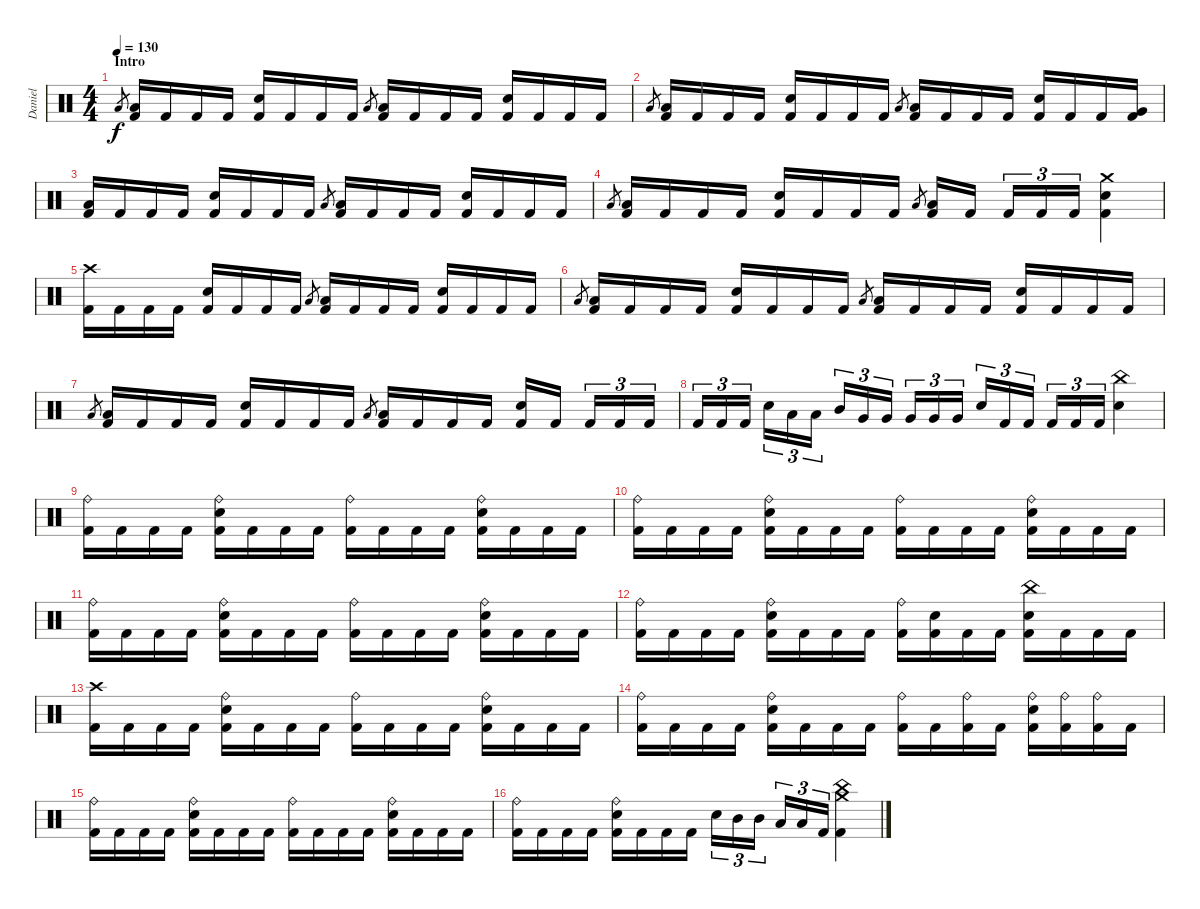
\track ("Daniel" "Daniel") {instrument percussion}
\staff {score}
\articulation defaults
\ts (4 4)
\section ("" "Intro")
\tempo 130
\clef neutral
\ks c "Low Floor Tom (hit)".8{gr dy f}
("Low Floor Tom (hit)" "Kick (hit) 2").16 "Kick (hit) 2".16 "Kick (hit) 2".16 "Kick (hit) 2".16 ("Electric Snare (hit)" "Kick (hit) 2").16 "Kick (hit) 2".16 "Kick (hit) 2".16 "Kick (hit) 2".16 "Low Floor Tom (hit)".8{gr} ("Low Floor Tom (hit)" "Kick (hit) 2").16 "Kick (hit) 2".16 "Kick (hit) 2".16 "Kick (hit) 2".16 ("Electric Snare (hit)" "Kick (hit) 2").16 "Kick (hit) 2".16 "Kick (hit) 2".16 "Kick (hit) 2".16 |
"Low Floor Tom (hit)".8{gr} ("Low Floor Tom (hit)" "Kick (hit) 2").16 "Kick (hit) 2".16 "Kick (hit) 2".16 "Kick (hit) 2".16 ("Electric Snare (hit)" "Kick (hit) 2").16 "Kick (hit) 2".16 "Kick (hit) 2".16 "Kick (hit) 2".16 "Low Floor Tom (hit)".8{gr} ("Low Floor Tom (hit)" "Kick (hit) 2").16 "Kick (hit) 2".16 "Kick (hit) 2".16 "Kick (hit) 2".16 ("Electric Snare (hit)" "Kick (hit) 2").16 "Kick (hit) 2".16 "Kick (hit) 2".16 ("Very Low Tom (hit)" "Kick (hit) 2").16 |
("Low Floor Tom (hit)" "Kick (hit) 2").16 "Kick (hit) 2".16 "Kick (hit) 2".16 "Kick (hit) 2".16 ("Electric Snare (hit)" "Kick (hit) 2").16 "Kick (hit) 2".16 "Kick (hit) 2".16 "Kick (hit) 2".16 "Low Floor Tom (hit)".8{gr} ("Low Floor Tom (hit)" "Kick (hit) 2").16 "Kick (hit) 2".16 "Kick (hit) 2".16 "Kick (hit) 2".16 ("Electric Snare (hit)" "Kick (hit) 2").16 "Kick (hit) 2".16 "Kick (hit) 2".16 "Kick (hit) 2".16 |
"Low Floor Tom (hit)".8{gr} ("Low Floor Tom (hit)" "Kick (hit) 2").16 "Kick (hit) 2".16 "Kick (hit) 2".16 "Kick (hit) 2".16 ("Electric Snare (hit)" "Kick (hit) 2").16 "Kick (hit) 2".16 "Kick (hit) 2".16 "Kick (hit) 2".16 "Low Floor Tom (hit)".8{gr} ("Low Floor Tom (hit)" "Kick (hit) 2").16 "Kick (hit) 2".16 "Kick (hit) 2".16{tu (3 2)} "Kick (hit) 2".16{tu (3 2)} "Kick (hit) 2".16{tu (3 2)} ("Crash medium (hit)" "Electric Snare (hit)" "Kick (hit) 2").4 |
("Crash high (hit)" "Kick (hit) 2").16 "Kick (hit) 2".16 "Kick (hit) 2".16 "Kick (hit) 2".16 ("Electric Snare (hit)" "Kick (hit) 2").16 "Kick (hit) 2".16 "Kick (hit) 2".16 "Kick (hit) 2".16 "Low Floor Tom (hit)".8{gr} ("Low Floor Tom (hit)" "Kick (hit) 2").16 "Kick (hit) 2".16 "Kick (hit) 2".16 "Kick (hit) 2".16 ("Electric Snare (hit)" "Kick (hit) 2").16 "Kick (hit) 2".16 "Kick (hit) 2".16 "Kick (hit) 2".16 |
"Low Floor Tom (hit)".8{gr} ("Low Floor Tom (hit)" "Kick (hit) 2").16 "Kick (hit) 2".16 "Kick (hit) 2".16 "Kick (hit) 2".16 ("Electric Snare (hit)" "Kick (hit) 2").16 "Kick (hit) 2".16 "Kick (hit) 2".16 "Kick (hit) 2".16 "Low Floor Tom (hit)".8{gr} ("Low Floor Tom (hit)" "Kick (hit) 2").16 "Kick (hit) 2".16 "Kick (hit) 2".16 "Kick (hit) 2".16 ("Electric Snare (hit)" "Kick (hit) 2").16 "Kick (hit) 2".16 "Kick (hit) 2".16 "Kick (hit) 2".16 |
"Low Floor Tom (hit)".8{gr} ("Low Floor Tom (hit)" "Kick (hit) 2").16 "Kick (hit) 2".16 "Kick (hit) 2".16 "Kick (hit) 2".16 ("Electric Snare (hit)" "Kick (hit) 2").16 "Kick (hit) 2".16 "Kick (hit) 2".16 "Kick (hit) 2".16 "Low Floor Tom (hit)".8{gr} ("Low Floor Tom (hit)" "Kick (hit) 2").16 "Kick (hit) 2".16 "Kick (hit) 2".16 "Kick (hit) 2".16 ("Electric Snare (hit)" "Kick (hit) 2").16 "Kick (hit) 2".16 "Kick (hit) 2".16{tu (3 2)} "Kick (hit) 2".16{tu (3 2)} "Kick (hit) 2".16{tu (3 2)} |
"Kick (hit) 2".16{tu (3 2)} "Kick (hit) 2".16{tu (3 2)} "Kick (hit) 2".16{tu (3 2)} "Electric Snare (hit)".16{tu (3 2)} "Low Tom (hit)".16{tu (3 2)} "Low Tom (hit)".16{tu (3 2)} "Mid Tom (hit)".16{tu (3 2)} "Very Low Tom (hit)".16{tu (3 2)} "Very Low Tom (hit)".16{tu (3 2)} "Very Low Tom (hit)".16{tu (3 2)} "Very Low Tom (hit)".16{tu (3 2)} "Very Low Tom (hit)".16{tu (3 2)} "Electric Snare (hit)".16{tu (3 2)} "Kick (hit) 2".16{tu (3 2)} "Kick (hit) 2".16{tu (3 2)} "Kick (hit) 2".16{tu (3 2)} "Kick (hit) 2".16{tu (3 2)} "Kick (hit) 2".16{tu (3 2)} ("China (hit)" "Electric Snare (hit)").4 |
("Ride (bell)" "Kick (hit) 2").16 "Kick (hit) 2".16 "Kick (hit) 2".16 "Kick (hit) 2".16 ("Ride (bell)" "Electric Snare (hit)" "Kick (hit) 2").16 "Kick (hit) 2".16 "Kick (hit) 2".16 "Kick (hit) 2".16 ("Ride (bell)" "Kick (hit) 2").16 "Kick (hit) 2".16 "Kick (hit) 2".16 "Kick (hit) 2".16 ("Ride (bell)" "Electric Snare (hit)" "Kick (hit) 2").16 "Kick (hit) 2".16 "Kick (hit) 2".16 "Kick (hit) 2".16 |
("Ride (bell)" "Kick (hit) 2").16 "Kick (hit) 2".16 "Kick (hit) 2".16 "Kick (hit) 2".16 ("Ride (bell)" "Electric Snare (hit)" "Kick (hit) 2").16 "Kick (hit) 2".16 "Kick (hit) 2".16 "Kick (hit) 2".16 ("Ride (bell)" "Kick (hit) 2").16 "Kick (hit) 2".16 "Kick (hit) 2".16 "Kick (hit) 2".16 ("Ride (bell)" "Electric Snare (hit)" "Kick (hit) 2").16 "Kick (hit) 2".16 "Kick (hit) 2".16 "Kick (hit) 2".16 |
("Ride (bell)" "Kick (hit) 2").16 "Kick (hit) 2".16 "Kick (hit) 2".16 "Kick (hit) 2".16 ("Ride (bell)" "Electric Snare (hit)" "Kick (hit) 2").16 "Kick (hit) 2".16 "Kick (hit) 2".16 "Kick (hit) 2".16 ("Ride (bell)" "Kick (hit) 2").16 "Kick (hit) 2".16 "Kick (hit) 2".16 "Kick (hit) 2".16 ("Ride (bell)" "Electric Snare (hit)" "Kick (hit) 2").16 "Kick (hit) 2".16 "Kick (hit) 2".16 "Kick (hit) 2".16 |
("Ride (bell)" "Kick (hit) 2").16 "Kick (hit) 2".16 "Kick (hit) 2".16 "Kick (hit) 2".16 ("Ride (bell)" "Electric Snare (hit)" "Kick (hit) 2").16 "Kick (hit) 2".16 "Kick (hit) 2".16 "Kick (hit) 2".16 ("Ride (bell)" "Kick (hit) 2").16 ("Electric Snare (hit)" "Kick (hit) 2").16 "Kick (hit) 2".16 "Kick (hit) 2".16 ("China (hit)" "Electric Snare (hit)" "Kick (hit) 2").16 "Kick (hit) 2".16 "Kick (hit) 2".16 "Kick (hit) 2".16 |
("Crash high (hit)" "Kick (hit) 2").16 "Kick (hit) 2".16 "Kick (hit) 2".16 "Kick (hit) 2".16 ("Ride (bell)" "Electric Snare (hit)" "Kick (hit) 2").16 "Kick (hit) 2".16 "Kick (hit) 2".16 "Kick (hit) 2".16 ("Ride (bell)" "Kick (hit) 2").16 "Kick (hit) 2".16 "Kick (hit) 2".16 "Kick (hit) 2".16 ("Ride (bell)" "Electric Snare (hit)" "Kick (hit) 2").16 "Kick (hit) 2".16 "Kick (hit) 2".16 "Kick (hit) 2".16 |
("Ride (bell)" "Kick (hit) 2").16 "Kick (hit) 2".16 "Kick (hit) 2".16 "Kick (hit) 2".16 ("Ride (bell)" "Electric Snare (hit)" "Kick (hit) 2").16 "Kick (hit) 2".16 "Kick (hit) 2".16 "Kick (hit) 2".16 ("Ride (bell)" "Kick (hit) 2").16 "Kick (hit) 2".16 ("Ride (bell)" "Kick (hit) 2").16 "Kick (hit) 2".16 ("Ride (bell)" "Electric Snare (hit)" "Kick (hit) 2").16 ("Ride (bell)" "Kick (hit) 2").16 ("Ride (bell)" "Kick (hit) 2").16 "Kick (hit) 2".16 |
("Ride (bell)" "Kick (hit) 2").16 "Kick (hit) 2".16 "Kick (hit) 2".16 "Kick (hit) 2".16 ("Ride (bell)" "Electric Snare (hit)" "Kick (hit) 2").16 "Kick (hit) 2".16 "Kick (hit) 2".16 "Kick (hit) 2".16 ("Ride (bell)" "Kick (hit) 2").16 "Kick (hit) 2".16 "Kick (hit) 2".16 "Kick (hit) 2".16 ("Ride (bell)" "Electric Snare (hit)" "Kick (hit) 2").16 "Kick (hit) 2".16 "Kick (hit) 2".16 "Kick (hit) 2".16 |
("Ride (bell)" "Kick (hit) 2").16 "Kick (hit) 2".16 "Kick (hit) 2".16 "Kick (hit) 2".16 ("Ride (bell)" "Electric Snare (hit)" "Kick (hit) 2").16 "Kick (hit) 2".16 "Kick (hit) 2".16 "Kick (hit) 2".16 "Electric Snare (hit)".16{tu (3 2)} "Mid Tom (hit)".16{tu (3 2)} "Mid Tom (hit)".16{tu (3 2)} "Low Tom (hit)".16{tu (3 2)} "Low Tom (hit)".16{tu (3 2)} "Kick (hit) 2".16{tu (3 2)} ("China (hit)" "Crash medium (hit)" "Kick (hit) 2").4
